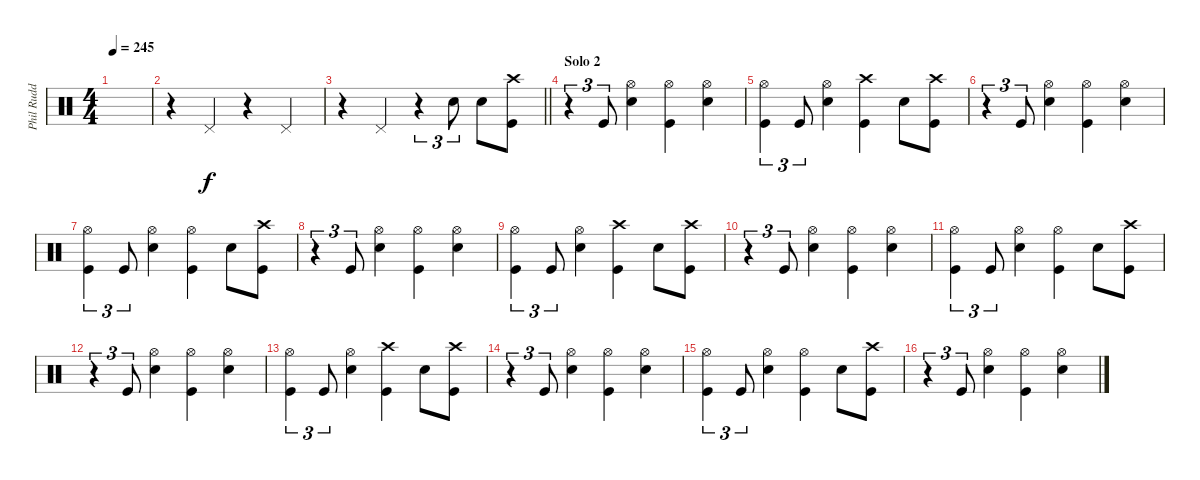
\track ("Phil Rudd" "Phil Rudd") {instrument percussion}
\staff {score}
\articulation defaults
\ts (4 4)
\tempo 245
\clef neutral
\ks c
|
r.4 "Pedal Hi-Hat (hit)".4 r.4 "Pedal Hi-Hat (hit)".4 |
\barLineRight lightlight
r.4 "Pedal Hi-Hat (hit)".4 r.4{tu (3 2)} "Snare (hit) 2".8{tu (3 2)} "Snare (hit) 2".8 ("Crash high (hit)" "Kick (hit)").8 |
\section ("" "Solo 2")
r.4{tu (3 2)} "Kick (hit)".8{tu (3 2)} ("Hi-Hat (open)" "Snare (hit) 2").4 ("Hi-Hat (open)" "Kick (hit)").4 ("Hi-Hat (open)" "Snare (hit) 2").4 |
("Hi-Hat (open)" "Kick (hit)").4{tu (3 2)} "Kick (hit)".8{tu (3 2)} ("Hi-Hat (open)" "Snare (hit) 2").4 ("Crash high (hit)" "Kick (hit)").4 "Snare (hit) 2".8 ("Crash high (hit)" "Kick (hit)").8 |
r.4{tu (3 2)} "Kick (hit)".8{tu (3 2)} ("Hi-Hat (open)" "Snare (hit) 2").4 ("Hi-Hat (open)" "Kick (hit)").4 ("Hi-Hat (open)" "Snare (hit) 2").4 |
("Hi-Hat (open)" "Kick (hit)").4{tu (3 2)} "Kick (hit)".8{tu (3 2)} ("Hi-Hat (open)" "Snare (hit) 2").4 ("Hi-Hat (open)" "Kick (hit)").4 "Snare (hit) 2".8 ("Crash high (hit)" "Kick (hit)").8 |
r.4{tu (3 2)} "Kick (hit)".8{tu (3 2)} ("Hi-Hat (open)" "Snare (hit) 2").4 ("Hi-Hat (open)" "Kick (hit)").4 ("Hi-Hat (open)" "Snare (hit) 2").4 |
("Hi-Hat (open)" "Kick (hit)").4{tu (3 2)} "Kick (hit)".8{tu (3 2)} ("Hi-Hat (open)" "Snare (hit) 2").4 ("Crash high (hit)" "Kick (hit)").4 "Snare (hit) 2".8 ("Crash high (hit)" "Kick (hit)").8 |
r.4{tu (3 2)} "Kick (hit)".8{tu (3 2)} ("Hi-Hat (open)" "Snare (hit) 2").4 ("Hi-Hat (open)" "Kick (hit)").4 ("Hi-Hat (open)" "Snare (hit) 2").4 |
("Hi-Hat (open)" "Kick (hit)").4{tu (3 2)} "Kick (hit)".8{tu (3 2)} ("Hi-Hat (open)" "Snare (hit) 2").4 ("Hi-Hat (open)" "Kick (hit)").4 "Snare (hit) 2".8 ("Crash high (hit)" "Kick (hit)").8 |
r.4{tu (3 2)} "Kick (hit)".8{tu (3 2)} ("Hi-Hat (open)" "Snare (hit) 2").4 ("Hi-Hat (open)" "Kick (hit)").4 ("Hi-Hat (open)" "Snare (hit) 2").4 |
("Hi-Hat (open)" "Kick (hit)").4{tu (3 2)} "Kick (hit)".8{tu (3 2)} ("Hi-Hat (open)" "Snare (hit) 2").4 ("Crash high (hit)" "Kick (hit)").4 "Snare (hit) 2".8 ("Crash high (hit)" "Kick (hit)").8 |
r.4{tu (3 2)} "Kick (hit)".8{tu (3 2)} ("Hi-Hat (open)" "Snare (hit) 2").4 ("Hi-Hat (open)" "Kick (hit)").4 ("Hi-Hat (open)" "Snare (hit) 2").4 |
("Hi-Hat (open)" "Kick (hit)").4{tu (3 2)} "Kick (hit)".8{tu (3 2)} ("Hi-Hat (open)" "Snare (hit) 2").4 ("Hi-Hat (open)" "Kick (hit)").4 "Snare (hit) 2".8 ("Crash high (hit)" "Kick (hit)").8 |
r.4{tu (3 2)} "Kick (hit)".8{tu (3 2)} ("Hi-Hat (open)" "Snare (hit) 2").4 ("Hi-Hat (open)" "Kick (hit)").4 ("Hi-Hat (open)" "Snare (hit) 2").4
